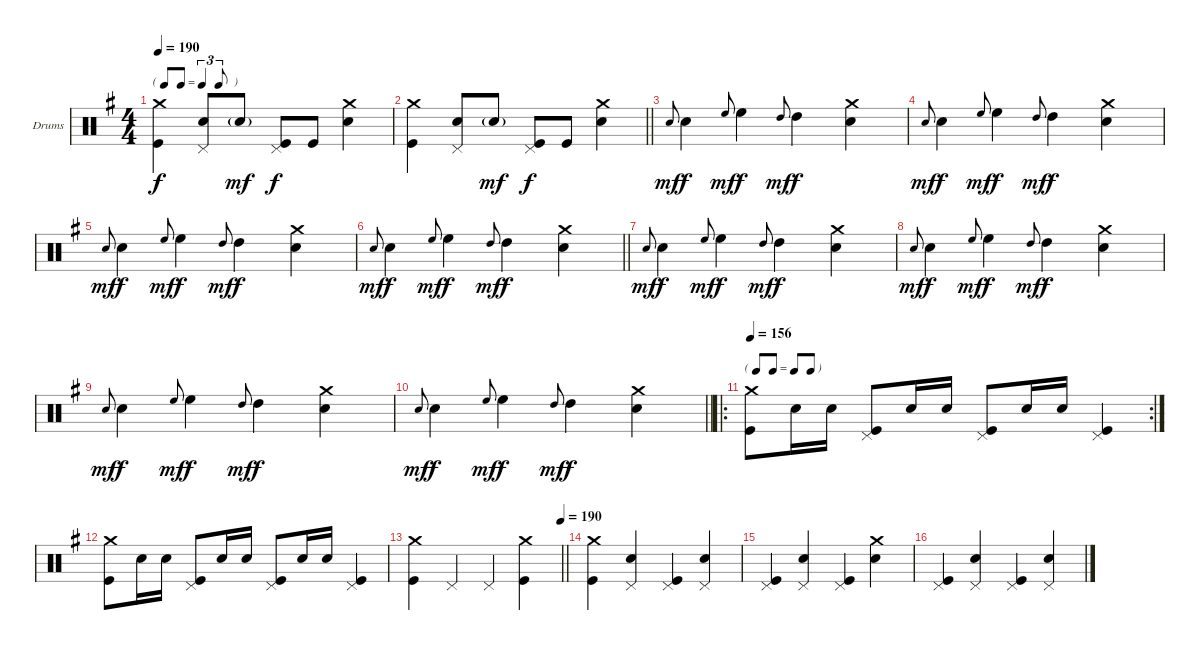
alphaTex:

\bracketExtendMode groupsimilarinstruments
\firstSystemTrackNameOrientation horizontal
\otherSystemsTrackNameOrientation horizontal
\track ("Drums" "Drums") {instrument percussion}
\staff {score}
\articulation defaults
\ts (4 4)
\tf triplet8th
\tempo 190
\clef neutral
\ks g
("Crash medium (hit)" "Kick (hit)").4{dy f} ("Pedal Hi-Hat (hit)" "Snare (hit) 2").8 "Snare (hit) 2"{g}.8{dy mf} ("Pedal Hi-Hat (hit)" "Kick (hit)").8{dy f} "Kick (hit)".8 ("Crash medium (hit)" "Snare (hit) 2").4 |
\barLineRight lightlight
("Crash medium (hit)" "Kick (hit)").4 ("Pedal Hi-Hat (hit)" "Snare (hit) 2").8 "Snare (hit) 2"{g}.8{dy mf} ("Pedal Hi-Hat (hit)" "Kick (hit)").8{dy f} "Kick (hit)".8 ("Crash medium (hit)" "Snare (hit) 2").4 |
"Snare (hit) 2".8{gr onbeat dy mf} "Snare (hit) 2".4{dy f} "High Floor Tom (hit)".8{gr onbeat dy mf} "High Floor Tom (hit)".4{dy f} "High Tom (hit)".8{gr onbeat dy mf} "High Tom (hit)".4{dy f} ("Crash medium (hit)" "Snare (hit) 2").4 |
"Snare (hit) 2".8{gr onbeat dy mf} "Snare (hit) 2".4{dy f} "High Floor Tom (hit)".8{gr onbeat dy mf} "High Floor Tom (hit)".4{dy f} "High Tom (hit)".8{gr onbeat dy mf} "High Tom (hit)".4{dy f} ("Crash medium (hit)" "Snare (hit) 2").4 |
"Snare (hit) 2".8{gr onbeat dy mf} "Snare (hit) 2".4{dy f} "High Floor Tom (hit)".8{gr onbeat dy mf} "High Floor Tom (hit)".4{dy f} "High Tom (hit)".8{gr onbeat dy mf} "High Tom (hit)".4{dy f} ("Crash medium (hit)" "Snare (hit) 2").4 |
\barLineRight lightlight "Snare (hit) 2".8{gr onbeat dy mf} "Snare (hit) 2".4{dy f} "High Floor Tom (hit)".8{gr onbeat dy mf} "High Floor Tom (hit)".4{dy f} "High Tom (hit)".8{gr onbeat dy mf} "High Tom (hit)".4{dy f}
("Crash medium (hit)" "Snare (hit) 2").4 |
"Snare (hit) 2".8{gr onbeat dy mf} "Snare (hit) 2".4{dy f} "High Floor Tom (hit)".8{gr onbeat dy mf} "High Floor Tom (hit)".4{dy f} "High Tom (hit)".8{gr onbeat dy mf} "High Tom (hit)".4{dy f} ("Crash medium (hit)" "Snare (hit) 2").4 |
"Snare (hit) 2".8{gr onbeat dy mf} "Snare (hit) 2".4{dy f} "High Floor Tom (hit)".8{gr onbeat dy mf} "High Floor Tom (hit)".4{dy f} "High Tom (hit)".8{gr onbeat dy mf} "High Tom (hit)".4{dy f} ("Crash medium (hit)" "Snare (hit) 2").4 |
"Snare (hit) 2".8{gr onbeat dy mf} "Snare (hit) 2".4{dy f} "High Floor Tom (hit)".8{gr onbeat dy mf} "High Floor Tom (hit)".4{dy f} "High Tom (hit)".8{gr onbeat dy mf} "High Tom (hit)".4{dy f} ("Crash medium (hit)" "Snare (hit) 2").4 |
\barLineRight lightlight "Snare (hit) 2".8{gr onbeat dy mf} "Snare (hit) 2".4{dy f} "High Floor Tom (hit)".8{gr onbeat dy mf} "High Floor Tom (hit)".4{dy f} "High Tom (hit)".8{gr onbeat dy mf} "High Tom (hit)".4{dy f}
("Crash medium (hit)" "Snare (hit) 2").4 |
\ro
\rc 2
\tf none
\tempo 156
("Crash medium (hit)" "Kick (hit)").8 "Snare (hit) 2".16 "Snare (hit) 2".16 ("Pedal Hi-Hat (hit)" "Kick (hit)").8 "Snare (hit) 2".16 "Snare (hit) 2".16 ("Pedal Hi-Hat (hit)" "Kick (hit)").8 "Snare (hit) 2".16 "Snare (hit) 2".16 ("Pedal Hi-Hat (hit)" "Kick (hit)").4 |
("Crash medium (hit)" "Kick (hit)").8 "Snare (hit) 2".16 "Snare (hit) 2".16 ("Pedal Hi-Hat (hit)" "Kick (hit)").8 "Snare (hit) 2".16 "Snare (hit) 2".16 ("Pedal Hi-Hat (hit)" "Kick (hit)").8 "Snare (hit) 2".16 "Snare (hit) 2".16 ("Pedal Hi-Hat (hit)" "Kick (hit)").4 |
\tempo (190 1)
\barLineRight lightlight
("Crash medium (hit)" "Kick (hit)").4 "Pedal Hi-Hat (hit)".4 "Pedal Hi-Hat (hit)".4 ("Crash medium (hit)" "Kick (hit)").4 |
("Crash medium (hit)" "Kick (hit)").4 ("Pedal Hi-Hat (hit)" "Snare (hit) 2").4 ("Pedal Hi-Hat (hit)" "Kick (hit)").4 ("Pedal Hi-Hat (hit)" "Snare (hit) 2").4 |
("Pedal Hi-Hat (hit)" "Kick (hit)").4 ("Pedal Hi-Hat (hit)" "Snare (hit) 2").4 ("Pedal Hi-Hat (hit)" "Kick (hit)").4 ("Crash medium (hit)" "Snare (hit) 2").4 |
("Pedal Hi-Hat (hit)" "Kick (hit)").4 ("Pedal Hi-Hat (hit)" "Snare (hit) 2").4 ("Pedal Hi-Hat (hit)" "Kick (hit)").4 ("Pedal Hi-Hat (hit)" "Snare (hit) 2").4
